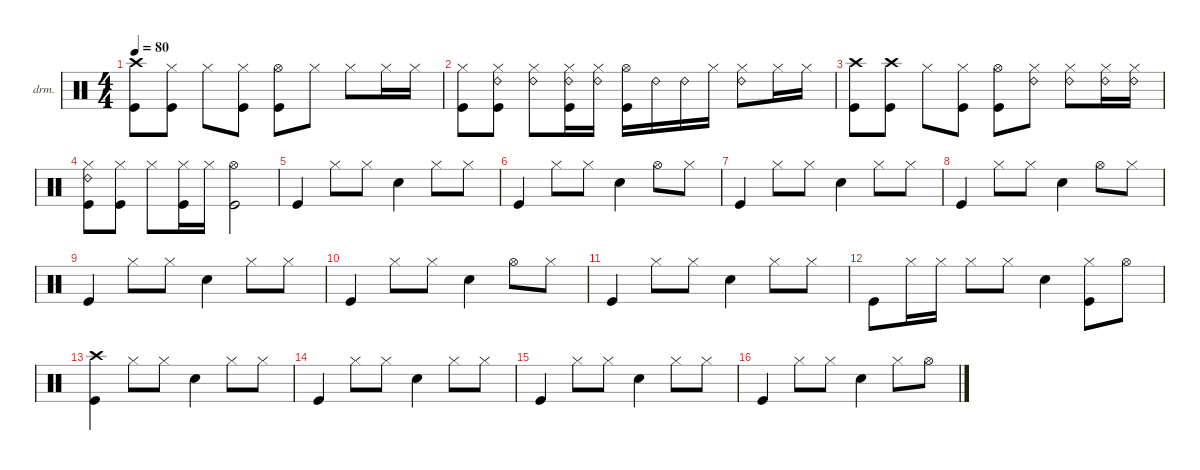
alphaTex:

\defaultSystemsLayout 4
\hideDynamics
\bracketExtendMode groupsimilarinstruments
\firstSystemTrackNameOrientation horizontal
\otherSystemsTrackNameOrientation horizontal
\track ("drum" "drm.") {instrument percussion}
\staff {score}
\articulation defaults
\ts (4 4)
\tempo 80
\clef neutral
\ks c
("Crash high (hit)" "Kick (hit)").8{dy f} ("Hi-Hat (closed)" "Kick (hit)").8 "Hi-Hat (closed)".8 ("Hi-Hat (closed)" "Kick (hit)").8 ("Hi-Hat (open)" "Kick (hit)").8 "Hi-Hat (closed)".8 "Hi-Hat (closed)".8 "Hi-Hat (closed)".16 "Hi-Hat (closed)".16 |
("Hi-Hat (closed)" "Kick (hit)").8 ("Hi-Hat (closed)" "Kick (hit)" "Ride (bell) 2").8 ("Hi-Hat (closed)" "Ride (bell) 2").8 ("Hi-Hat (closed)" "Kick (hit)" "Ride (bell) 2").16 ("Hi-Hat (closed)" "Ride (bell) 2").16 ("Hi-Hat (open)" "Kick (hit)").16 "Ride (bell) 2".16 "Ride (bell) 2".16 "Hi-Hat (closed)".16 ("Hi-Hat (closed)" "Ride (bell) 2").8 "Hi-Hat (closed)".16 "Hi-Hat (closed)".16 |
("Crash high (hit)" "Kick (hit)").8 ("Crash high (hit)" "Kick (hit)").8 "Hi-Hat (closed)".8 ("Hi-Hat (closed)" "Kick (hit)").8 ("Hi-Hat (open)" "Kick (hit)").8 ("Hi-Hat (closed)" "Ride (bell) 2").8 ("Hi-Hat (closed)" "Ride (bell) 2").8 ("Hi-Hat (closed)" "Ride (bell) 2").16 ("Hi-Hat (closed)" "Ride (bell) 2").16 |
("Hi-Hat (closed)" "Kick (hit)" "Ride (bell) 2").8 ("Hi-Hat (closed)" "Kick (hit)").8 "Hi-Hat (closed)".8 ("Hi-Hat (closed)" "Kick (hit)").16 "Hi-Hat (closed)".16 ("Hi-Hat (open)" "Kick (hit)").2 |
"Kick (hit)".4 "Hi-Hat (closed)".8 "Hi-Hat (closed)".8 "Snare (hit) 2".4 "Hi-Hat (closed)".8 "Hi-Hat (closed)".8 |
"Kick (hit)".4 "Hi-Hat (closed)".8 "Hi-Hat (closed)".8 "Snare (hit) 2".4 "Hi-Hat (open)".8 "Hi-Hat (closed)".8 |
"Kick (hit)".4 "Hi-Hat (closed)".8 "Hi-Hat (closed)".8 "Snare (hit) 2".4 "Hi-Hat (closed)".8 "Hi-Hat (closed)".8 |
"Kick (hit)".4 "Hi-Hat (closed)".8 "Hi-Hat (closed)".8 "Snare (hit) 2".4 "Hi-Hat (open)".8 "Hi-Hat (closed)".8 |
"Kick (hit)".4 "Hi-Hat (closed)".8 "Hi-Hat (closed)".8 "Snare (hit) 2".4 "Hi-Hat (closed)".8 "Hi-Hat (closed)".8 |
"Kick (hit)".4 "Hi-Hat (closed)".8 "Hi-Hat (closed)".8 "Snare (hit) 2".4 "Hi-Hat (open)".8 "Hi-Hat (closed)".8 |
"Kick (hit)".4 "Hi-Hat (closed)".8 "Hi-Hat (closed)".8 "Snare (hit) 2".4 "Hi-Hat (closed)".8 "Hi-Hat (closed)".8 |
"Kick (hit)".8 "Hi-Hat (closed)".16 "Hi-Hat (closed)".16 "Hi-Hat (closed)".8 "Hi-Hat (closed)".8 "Snare (hit) 2".4 ("Hi-Hat (closed)" "Kick (hit)").8 "Hi-Hat (open)".8 |
("Crash high (hit)" "Kick (hit)").4 "Hi-Hat (closed)".8 "Hi-Hat (closed)".8 "Snare (hit) 2".4 "Hi-Hat (closed)".8 "Hi-Hat (closed)".8 |
"Kick (hit)".4 "Hi-Hat (closed)".8 "Hi-Hat (closed)".8 "Snare (hit) 2".4 "Hi-Hat (closed)".8 "Hi-Hat (closed)".8 |
"Kick (hit)".4 "Hi-Hat (closed)".8 "Hi-Hat (closed)".8 "Snare (hit) 2".4 "Hi-Hat (closed)".8 "Hi-Hat (closed)".8 |
"Kick (hit)".4 "Hi-Hat (closed)".8 "Hi-Hat (closed)".8 "Snare (hit) 2".4 "Hi-Hat (closed)".8 "Hi-Hat (open)".8
